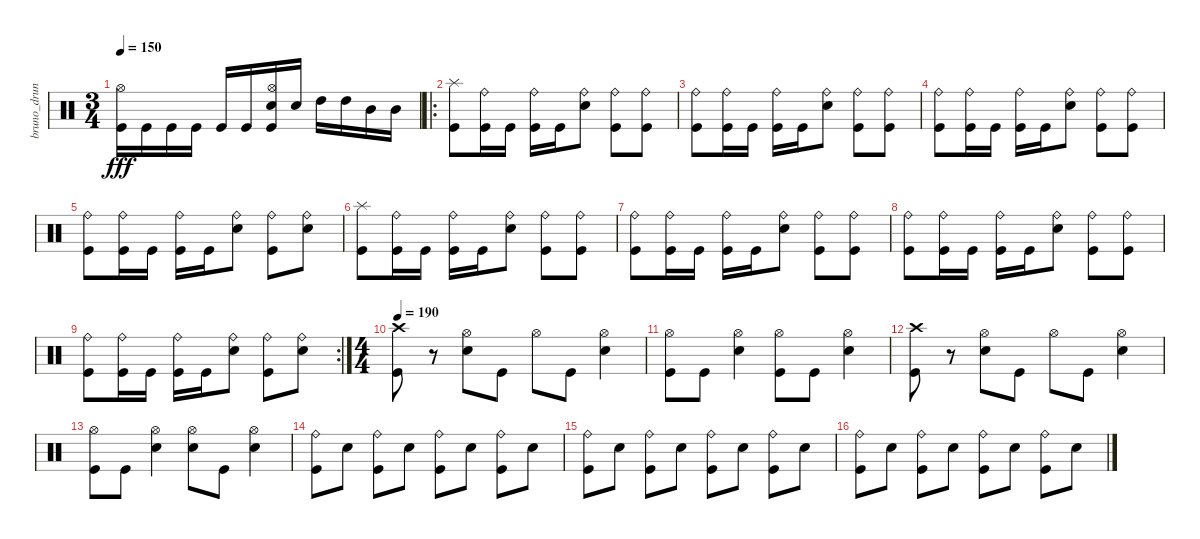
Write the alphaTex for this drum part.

\track ("bruno_druns" "bruno_drun") {instrument percussion}
\staff {score}
\articulation defaults
\ts (3 4)
\tempo 150
\clef neutral
\ks c
("Kick (hit)" "Hi-Hat (open)").16{dy fff} "Kick (hit)".16 "Kick (hit)".16 "Kick (hit)".16 "Kick (hit)".16 "Kick (hit)".16 ("Kick (hit)" "Electric Snare (hit)" "Hi-Hat (open)").16 "Electric Snare (hit)".16 "High Tom (hit)".16 "High Tom (hit)".16 "Mid Tom (hit)".16 "Mid Tom (hit)".16 |
\ro
("Kick (hit)" "Splash (hit)").8 ("Kick (hit)" "Ride (bell)").16 "Kick (hit)".16 ("Kick (hit)" "Ride (bell)").16 "Kick (hit)".16 ("Electric Snare (hit)" "Ride (bell)").8 ("Kick (hit)" "Ride (bell)").8 ("Kick (hit)" "Ride (bell)").8 |
("Kick (hit)" "Ride (bell)").8 ("Kick (hit)" "Ride (bell)").16 "Kick (hit)".16 ("Kick (hit)" "Ride (bell)").16 "Kick (hit)".16 ("Electric Snare (hit)" "Ride (bell)").8 ("Kick (hit)" "Ride (bell)").8 ("Kick (hit)" "Ride (bell)").8 |
("Kick (hit)" "Ride (bell)").8 ("Kick (hit)" "Ride (bell)").16 "Kick (hit)".16 ("Kick (hit)" "Ride (bell)").16 "Kick (hit)".16 ("Electric Snare (hit)" "Ride (bell)").8 ("Kick (hit)" "Ride (bell)").8 ("Kick (hit)" "Ride (bell)").8 |
("Kick (hit)" "Ride (bell)").8 ("Kick (hit)" "Ride (bell)").16 "Kick (hit)".16 ("Kick (hit)" "Ride (bell)").16 "Kick (hit)".16 ("Electric Snare (hit)" "Ride (bell)").8 ("Kick (hit)" "Ride (bell)").8 ("Electric Snare (hit)" "Ride (bell)").8 |
("Kick (hit)" "Splash (hit)").8 ("Kick (hit)" "Ride (bell)").16 "Kick (hit)".16 ("Kick (hit)" "Ride (bell)").16 "Kick (hit)".16 ("Electric Snare (hit)" "Ride (bell)").8 ("Kick (hit)" "Ride (bell)").8 ("Kick (hit)" "Ride (bell)").8 |
("Kick (hit)" "Ride (bell)").8 ("Kick (hit)" "Ride (bell)").16 "Kick (hit)".16 ("Kick (hit)" "Ride (bell)").16 "Kick (hit)".16 ("Electric Snare (hit)" "Ride (bell)").8 ("Kick (hit)" "Ride (bell)").8 ("Kick (hit)" "Ride (bell)").8 |
("Kick (hit)" "Ride (bell)").8 ("Kick (hit)" "Ride (bell)").16 "Kick (hit)".16 ("Kick (hit)" "Ride (bell)").16 "Kick (hit)".16 ("Electric Snare (hit)" "Ride (bell)").8 ("Kick (hit)" "Ride (bell)").8 ("Kick (hit)" "Ride (bell)").8 |
\rc 2
("Kick (hit)" "Ride (bell)").8 ("Kick (hit)" "Ride (bell)").16 "Kick (hit)".16 ("Kick (hit)" "Ride (bell)").16 "Kick (hit)".16 ("Electric Snare (hit)" "Ride (bell)").8 ("Kick (hit)" "Ride (bell)").8 ("Electric Snare (hit)" "Ride (bell)").8 |
\ts (4 4)
\tempo 190
("Kick (hit)" "Crash high (hit)").8 r.8 ("Electric Snare (hit)" "Hi-Hat (open)").8 "Kick (hit)".8 "Hi-Hat (open)".8 "Kick (hit)".8 ("Electric Snare (hit)" "Hi-Hat (open)").4 |
("Kick (hit)" "Hi-Hat (open)").8 "Kick (hit)".8 ("Electric Snare (hit)" "Hi-Hat (open)").4 ("Kick (hit)" "Hi-Hat (open)").8 "Kick (hit)".8 ("Electric Snare (hit)" "Hi-Hat (open)").4 |
("Kick (hit)" "Crash high (hit)").8 r.8 ("Electric Snare (hit)" "Hi-Hat (open)").8 "Kick (hit)".8 "Hi-Hat (open)".8 "Kick (hit)".8 ("Electric Snare (hit)" "Hi-Hat (open)").4 |
("Kick (hit)" "Hi-Hat (open)").8 "Kick (hit)".8 ("Electric Snare (hit)" "Hi-Hat (open)").4 ("Electric Snare (hit)" "Hi-Hat (open)").8 "Kick (hit)".8 ("Electric Snare (hit)" "Hi-Hat (open)").4 |
("Kick (hit)" "Ride (bell)").8 "Electric Snare (hit)".8 ("Kick (hit)" "Ride (bell)").8 "Electric Snare (hit)".8 ("Kick (hit)" "Ride (bell)").8 "Electric Snare (hit)".8 ("Kick (hit)" "Ride (bell)").8 "Electric Snare (hit)".8 |
("Kick (hit)" "Ride (bell)").8 "Electric Snare (hit)".8 ("Kick (hit)" "Ride (bell)").8 "Electric Snare (hit)".8 ("Kick (hit)" "Ride (bell)").8 "Electric Snare (hit)".8 ("Kick (hit)" "Ride (bell)").8 "Electric Snare (hit)".8 |
("Kick (hit)" "Ride (bell)").8 "Electric Snare (hit)".8 ("Kick (hit)" "Ride (bell)").8 "Electric Snare (hit)".8 ("Kick (hit)" "Ride (bell)").8 "Electric Snare (hit)".8 ("Kick (hit)" "Ride (bell)").8 "Electric Snare (hit)".8
